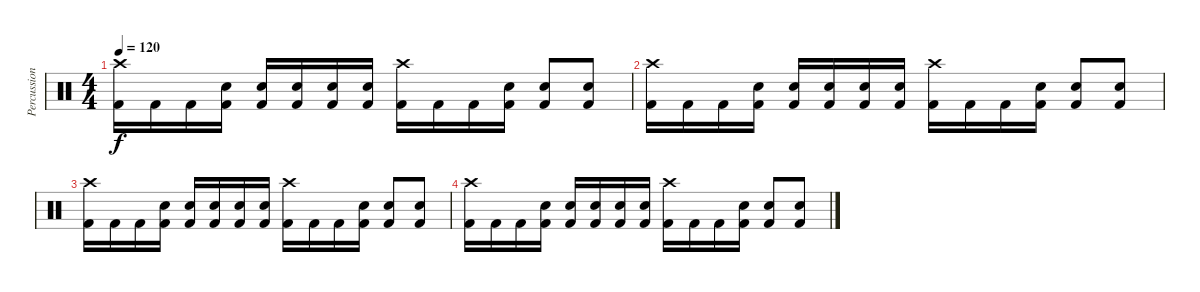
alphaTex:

\track ("Percussioni" "Percussion") {instrument percussion}
\staff {score}
\articulation defaults
\ts (4 4)
\tempo 120
\clef neutral
\ks c
("Kick (hit) 2" "Crash high (hit)").16{dy f} "Kick (hit) 2".16 "Kick (hit) 2".16 ("Kick (hit) 2" "Electric Snare (hit)").16 ("Kick (hit) 2" "Electric Snare (hit)").16 ("Kick (hit) 2" "Electric Snare (hit)").16 ("Kick (hit) 2" "Electric Snare (hit)").16 ("Kick (hit) 2" "Electric Snare (hit)").16 ("Kick (hit) 2" "Crash high (hit)").16 "Kick (hit) 2".16 "Kick (hit) 2".16 ("Kick (hit) 2" "Electric Snare (hit)").16 ("Kick (hit) 2" "Electric Snare (hit)").8 ("Kick (hit) 2" "Electric Snare (hit)").8 |
("Kick (hit) 2" "Crash high (hit)").16 "Kick (hit) 2".16 "Kick (hit) 2".16 ("Kick (hit) 2" "Electric Snare (hit)").16 ("Kick (hit) 2" "Electric Snare (hit)").16 ("Kick (hit) 2" "Electric Snare (hit)").16 ("Kick (hit) 2" "Electric Snare (hit)").16 ("Kick (hit) 2" "Electric Snare (hit)").16 ("Kick (hit) 2" "Crash high (hit)").16 "Kick (hit) 2".16 "Kick (hit) 2".16 ("Kick (hit) 2" "Electric Snare (hit)").16 ("Kick (hit) 2" "Electric Snare (hit)").8 ("Kick (hit) 2" "Electric Snare (hit)").8 |
("Kick (hit) 2" "Crash high (hit)").16 "Kick (hit) 2".16 "Kick (hit) 2".16 ("Kick (hit) 2" "Electric Snare (hit)").16 ("Kick (hit) 2" "Electric Snare (hit)").16 ("Kick (hit) 2" "Electric Snare (hit)").16 ("Kick (hit) 2" "Electric Snare (hit)").16 ("Kick (hit) 2" "Electric Snare (hit)").16 ("Kick (hit) 2" "Crash high (hit)").16 "Kick (hit) 2".16 "Kick (hit) 2".16 ("Kick (hit) 2" "Electric Snare (hit)").16 ("Kick (hit) 2" "Electric Snare (hit)").8 ("Kick (hit) 2" "Electric Snare (hit)").8 |
("Kick (hit) 2" "Crash high (hit)").16 "Kick (hit) 2".16 "Kick (hit) 2".16 ("Kick (hit) 2" "Electric Snare (hit)").16 ("Kick (hit) 2" "Electric Snare (hit)").16 ("Kick (hit) 2" "Electric Snare (hit)").16 ("Kick (hit) 2" "Electric Snare (hit)").16 ("Kick (hit) 2" "Electric Snare (hit)").16 ("Kick (hit) 2" "Crash high (hit)").16 "Kick (hit) 2".16 "Kick (hit) 2".16 ("Kick (hit) 2" "Electric Snare (hit)").16 ("Kick (hit) 2" "Electric Snare (hit)").8 ("Kick (hit) 2" "Electric Snare (hit)").8
